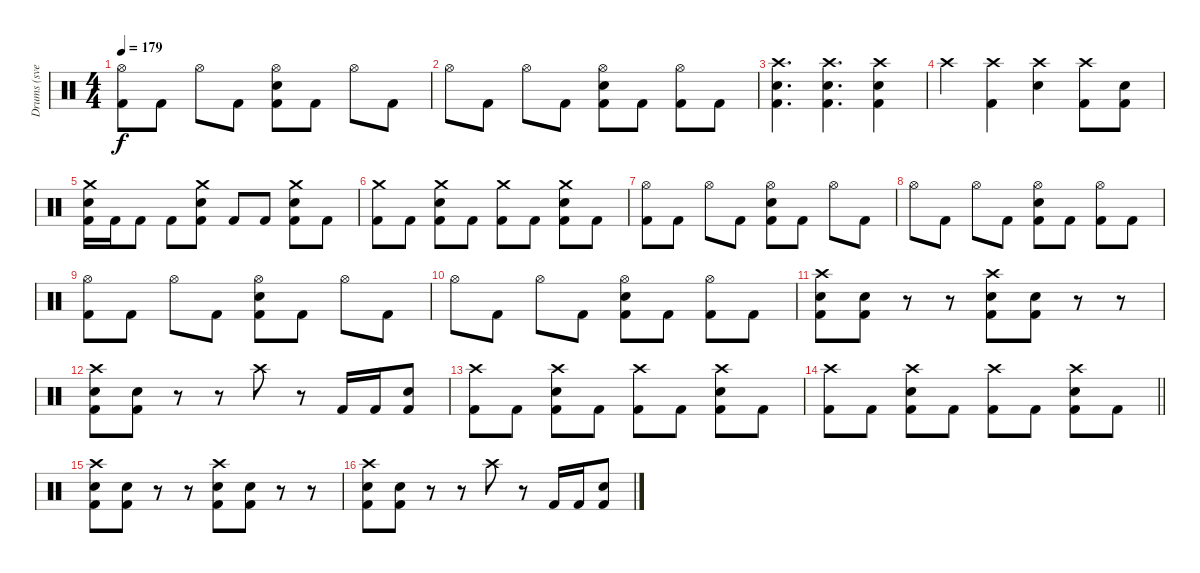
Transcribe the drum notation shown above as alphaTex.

\track ("Drums (svelle)" "Drums (sve") {instrument percussion}
\staff {score}
\articulation defaults
\ts (4 4)
\tempo 179
\clef neutral
\ks c
("Hi-Hat (open)" "Kick (hit) 2").8{dy f} "Kick (hit) 2".8 "Hi-Hat (open)".8 "Kick (hit) 2".8 ("Hi-Hat (open)" "Electric Snare (hit)" "Kick (hit) 2").8 "Kick (hit) 2".8 "Hi-Hat (open)".8 "Kick (hit) 2".8 |
"Hi-Hat (open)".8 "Kick (hit) 2".8 "Hi-Hat (open)".8 "Kick (hit) 2".8 ("Hi-Hat (open)" "Electric Snare (hit)" "Kick (hit) 2").8 "Kick (hit) 2".8 ("Hi-Hat (open)" "Kick (hit) 2").8 "Kick (hit) 2".8 |
("Crash high (hit)" "Electric Snare (hit)" "Kick (hit) 2").4{d} ("Crash high (hit)" "Electric Snare (hit)" "Kick (hit) 2").4{d} ("Crash high (hit)" "Electric Snare (hit)" "Kick (hit) 2").4 |
"Crash high (hit)".4 ("Crash high (hit)" "Kick (hit) 2").4 ("Crash high (hit)" "Electric Snare (hit)").4 ("Crash high (hit)" "Kick (hit) 2").8 ("Electric Snare (hit)" "Kick (hit) 2").8 |
("Crash medium (hit)" "Electric Snare (hit)" "Kick (hit) 2").16 "Kick (hit) 2".16 "Kick (hit) 2".8 "Kick (hit) 2".8 ("Crash medium (hit)" "Electric Snare (hit)" "Kick (hit) 2").8 "Kick (hit) 2".8 "Kick (hit) 2".8 ("Crash medium (hit)" "Electric Snare (hit)" "Kick (hit) 2").8 "Kick (hit) 2".8 |
("Crash medium (hit)" "Kick (hit) 2").8 "Kick (hit) 2".8 ("Crash medium (hit)" "Electric Snare (hit)" "Kick (hit) 2").8 "Kick (hit) 2".8 ("Crash medium (hit)" "Kick (hit) 2").8 "Kick (hit) 2".8 ("Crash medium (hit)" "Electric Snare (hit)" "Kick (hit) 2").8 "Kick (hit) 2".8 |
("Hi-Hat (open)" "Kick (hit) 2").8 "Kick (hit) 2".8 "Hi-Hat (open)".8 "Kick (hit) 2".8 ("Hi-Hat (open)" "Electric Snare (hit)" "Kick (hit) 2").8 "Kick (hit) 2".8 "Hi-Hat (open)".8 "Kick (hit) 2".8 |
"Hi-Hat (open)".8 "Kick (hit) 2".8 "Hi-Hat (open)".8 "Kick (hit) 2".8 ("Hi-Hat (open)" "Electric Snare (hit)" "Kick (hit) 2").8 "Kick (hit) 2".8 ("Hi-Hat (open)" "Kick (hit) 2").8 "Kick (hit) 2".8 |
("Hi-Hat (open)" "Kick (hit) 2").8 "Kick (hit) 2".8 "Hi-Hat (open)".8 "Kick (hit) 2".8 ("Hi-Hat (open)" "Electric Snare (hit)" "Kick (hit) 2").8 "Kick (hit) 2".8 "Hi-Hat (open)".8 "Kick (hit) 2".8 |
"Hi-Hat (open)".8 "Kick (hit) 2".8 "Hi-Hat (open)".8 "Kick (hit) 2".8 ("Hi-Hat (open)" "Electric Snare (hit)" "Kick (hit) 2").8 "Kick (hit) 2".8 ("Hi-Hat (open)" "Kick (hit) 2").8 "Kick (hit) 2".8 |
("Crash high (hit)" "Electric Snare (hit)" "Kick (hit) 2").8 ("Electric Snare (hit)" "Kick (hit) 2").8 r.8 r.8 ("Crash high (hit)" "Electric Snare (hit)" "Kick (hit) 2").8 ("Electric Snare (hit)" "Kick (hit) 2").8 r.8 r.8 |
("Crash high (hit)" "Electric Snare (hit)" "Kick (hit) 2").8 ("Electric Snare (hit)" "Kick (hit) 2").8 r.8 r.8 "Crash high (hit)".8 r.8 "Kick (hit) 2".16 "Kick (hit) 2".16 ("Electric Snare (hit)" "Kick (hit) 2").8 |
("Crash high (hit)" "Kick (hit) 2").8 "Kick (hit) 2".8 ("Crash high (hit)" "Electric Snare (hit)" "Kick (hit) 2").8 "Kick (hit) 2".8 ("Crash high (hit)" "Kick (hit) 2").8 "Kick (hit) 2".8 ("Crash high (hit)" "Electric Snare (hit)" "Kick (hit) 2").8 "Kick (hit) 2".8 |
\barLineRight lightlight
("Crash high (hit)" "Kick (hit) 2").8 "Kick (hit) 2".8 ("Crash high (hit)" "Electric Snare (hit)" "Kick (hit) 2").8 "Kick (hit) 2".8 ("Crash high (hit)" "Kick (hit) 2").8 "Kick (hit) 2".8 ("Crash high (hit)" "Electric Snare (hit)" "Kick (hit) 2").8 "Kick (hit) 2".8 |
("Crash high (hit)" "Electric Snare (hit)" "Kick (hit) 2").8 ("Electric Snare (hit)" "Kick (hit) 2").8 r.8 r.8 ("Crash high (hit)" "Electric Snare (hit)" "Kick (hit) 2").8 ("Electric Snare (hit)" "Kick (hit) 2").8 r.8 r.8 |
("Crash high (hit)" "Electric Snare (hit)" "Kick (hit) 2").8 ("Electric Snare (hit)" "Kick (hit) 2").8 r.8 r.8 "Crash high (hit)".8 r.8 "Kick (hit) 2".16 "Kick (hit) 2".16 ("Electric Snare (hit)" "Kick (hit) 2").8
